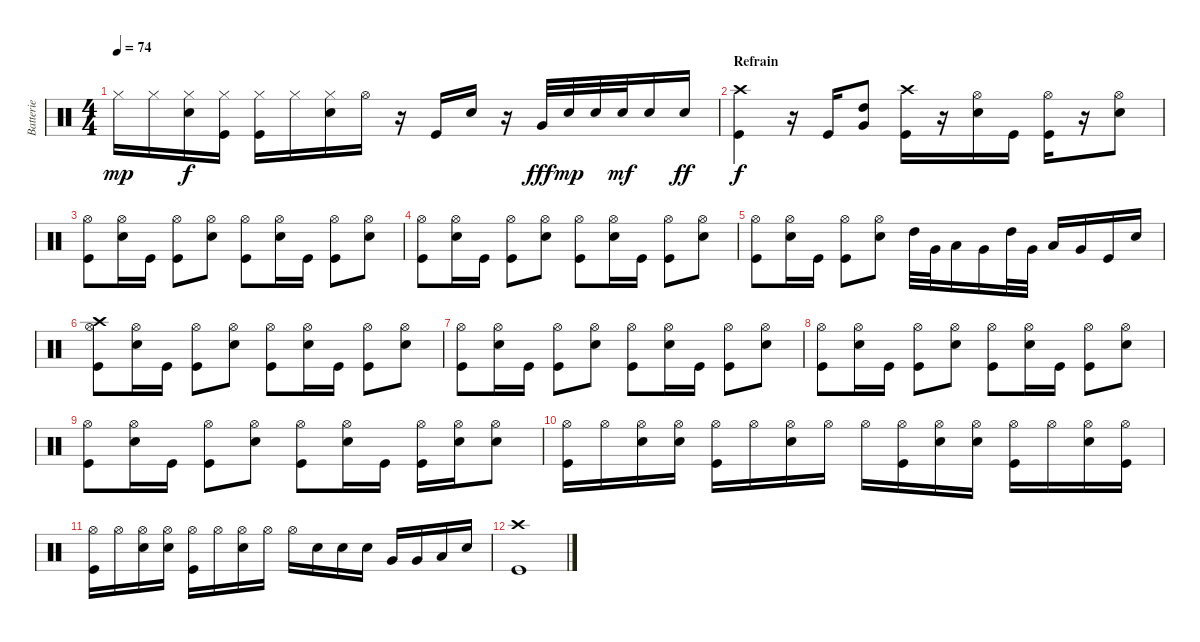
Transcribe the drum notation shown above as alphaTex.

\track ("Batterie" "Batterie") {instrument percussion}
\staff {score}
\articulation defaults
\ts (4 4)
\tempo 74
\clef neutral
\ks c "Hi-Hat (closed)".16{dy mp} "Hi-Hat (closed)".16
("Hi-Hat (closed)" "Snare (hit) 2").16{dy f} ("Hi-Hat (closed)" "Kick (hit)").16 ("Hi-Hat (closed)" "Kick (hit)").16 "Hi-Hat (closed)".16 ("Hi-Hat (closed)" "Snare (hit) 2").16 "Hi-Hat (open)".16 r.16 "Kick (hit)".16 "Snare (hit) 2".16 r.16 "Very Low Tom (hit)".32{dy fff} "Snare (hit) 2".32{dy mp} "Snare (hit) 2".32 "Snare (hit) 2".32{dy mf} "Snare (hit) 2".16 "Snare (hit) 2".16{dy ff} |
\section ("" "Refrain")
("Crash high (hit)" "Kick (hit)").4{dy f} r.16 "Kick (hit)".16 ("High Tom (hit)" "Very Low Tom (hit)").8 ("Crash high (hit)" "Kick (hit)").16 r.16 ("Hi-Hat (open)" "Snare (hit) 2").16 "Kick (hit)".16 ("Hi-Hat (open)" "Kick (hit)").16 r.16 ("Hi-Hat (open)" "Snare (hit) 2").8 |
("Hi-Hat (open)" "Kick (hit)").8 ("Hi-Hat (open)" "Snare (hit) 2").16 "Kick (hit)".16 ("Hi-Hat (open)" "Kick (hit)").8 ("Hi-Hat (open)" "Snare (hit) 2").8 ("Hi-Hat (open)" "Kick (hit)").8 ("Hi-Hat (open)" "Snare (hit) 2").16 "Kick (hit)".16 ("Hi-Hat (open)" "Kick (hit)").8 ("Hi-Hat (open)" "Snare (hit) 2").8 |
("Hi-Hat (open)" "Kick (hit)").8 ("Hi-Hat (open)" "Snare (hit) 2").16 "Kick (hit)".16 ("Hi-Hat (open)" "Kick (hit)").8 ("Hi-Hat (open)" "Snare (hit) 2").8 ("Hi-Hat (open)" "Kick (hit)").8 ("Hi-Hat (open)" "Snare (hit) 2").16 "Kick (hit)".16 ("Hi-Hat (open)" "Kick (hit)").8 ("Hi-Hat (open)" "Snare (hit) 2").8 |
("Hi-Hat (open)" "Kick (hit)").8 ("Hi-Hat (open)" "Snare (hit) 2").16 "Kick (hit)".16 ("Hi-Hat (open)" "Kick (hit)").8 ("Hi-Hat (open)" "Snare (hit) 2").8 "High Tom (hit)".32 "Very Low Tom (hit)".32 "Low Floor Tom (hit)".16 "Very Low Tom (hit)".16 "High Tom (hit)".32 "Very Low Tom (hit)".32 "Low Floor Tom (hit)".16 "Very Low Tom (hit)".16 "Kick (hit)".16 "Electric Snare (hit)".16 |
("Crash high (hit)" "Hi-Hat (open)" "Kick (hit)").8 ("Hi-Hat (open)" "Snare (hit) 2").16 "Kick (hit)".16 ("Hi-Hat (open)" "Kick (hit)").8 ("Hi-Hat (open)" "Snare (hit) 2").8 ("Hi-Hat (open)" "Kick (hit)").8 ("Hi-Hat (open)" "Snare (hit) 2").16 "Kick (hit)".16 ("Hi-Hat (open)" "Kick (hit)").8 ("Hi-Hat (open)" "Snare (hit) 2").8 |
("Hi-Hat (open)" "Kick (hit)").8 ("Hi-Hat (open)" "Snare (hit) 2").16 "Kick (hit)".16 ("Hi-Hat (open)" "Kick (hit)").8 ("Hi-Hat (open)" "Snare (hit) 2").8 ("Hi-Hat (open)" "Kick (hit)").8 ("Hi-Hat (open)" "Snare (hit) 2").16 "Kick (hit)".16 ("Hi-Hat (open)" "Kick (hit)").8 ("Hi-Hat (open)" "Snare (hit) 2").8 |
("Hi-Hat (open)" "Kick (hit)").8 ("Hi-Hat (open)" "Snare (hit) 2").16 "Kick (hit)".16 ("Hi-Hat (open)" "Kick (hit)").8 ("Hi-Hat (open)" "Snare (hit) 2").8 ("Hi-Hat (open)" "Kick (hit)").8 ("Hi-Hat (open)" "Snare (hit) 2").16 "Kick (hit)".16 ("Hi-Hat (open)" "Kick (hit)").8 ("Hi-Hat (open)" "Snare (hit) 2").8 |
("Hi-Hat (open)" "Kick (hit)").8 ("Hi-Hat (open)" "Snare (hit) 2").16 "Kick (hit)".16 ("Hi-Hat (open)" "Kick (hit)").8 ("Hi-Hat (open)" "Snare (hit) 2").8 ("Hi-Hat (open)" "Kick (hit)").8 ("Hi-Hat (open)" "Snare (hit) 2").16 "Kick (hit)".16 ("Hi-Hat (open)" "Kick (hit)").16 ("Hi-Hat (open)" "Snare (hit) 2").16 ("Hi-Hat (open)" "Snare (hit) 2").8 |
("Hi-Hat (open)" "Kick (hit)").16 "Hi-Hat (open)".16 ("Hi-Hat (open)" "Snare (hit) 2").16 ("Hi-Hat (open)" "Snare (hit) 2").16 ("Hi-Hat (open)" "Kick (hit)").16 "Hi-Hat (open)".16 ("Hi-Hat (open)" "Snare (hit) 2").16 "Hi-Hat (open)".16 "Hi-Hat (open)".16 ("Hi-Hat (open)" "Kick (hit)").16 ("Hi-Hat (open)" "Snare (hit) 2").16 ("Hi-Hat (open)" "Snare (hit) 2").16 ("Hi-Hat (open)" "Kick (hit)").16 "Hi-Hat (open)".16 ("Hi-Hat (open)" "Snare (hit) 2").16 ("Hi-Hat (open)" "Kick (hit)").16 |
("Hi-Hat (open)" "Kick (hit)").16 "Hi-Hat (open)".16 ("Hi-Hat (open)" "Snare (hit) 2").16 ("Hi-Hat (open)" "Snare (hit) 2").16 ("Hi-Hat (open)" "Kick (hit)").16 "Hi-Hat (open)".16 ("Hi-Hat (open)" "Snare (hit) 2").16 "Hi-Hat (open)".16 "Hi-Hat (open)".16 "Snare (hit) 2".16 "Snare (hit) 2".16 "Snare (hit) 2".16 "Very Low Tom (hit)".16 "Very Low Tom (hit)".16 "Low Floor Tom (hit)".16 "Electric Snare (hit)".16 |
("Crash high (hit)" "Kick (hit)").1
